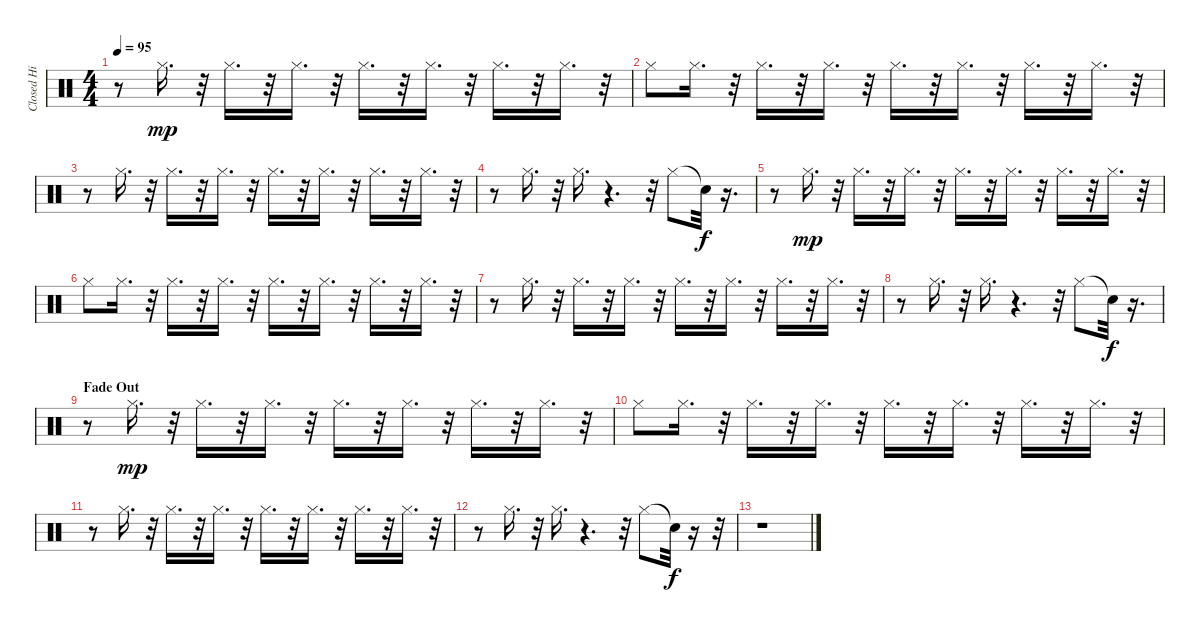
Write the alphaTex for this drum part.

\track ("Closed Hi Hat" "Closed Hi ") {instrument percussion}
\staff {score}
\articulation defaults
\ts (4 4)
\tempo 95
\clef neutral
\ks c
r.8{dy f} "Hi-Hat (closed)".16{d dy mp} r.32 "Hi-Hat (closed)".16{d} r.32 "Hi-Hat (closed)".16{d} r.32 "Hi-Hat (closed)".16{d} r.32 "Hi-Hat (closed)".16{d} r.32 "Hi-Hat (closed)".16{d} r.32 "Hi-Hat (closed)".16{d} r.32 |
"Hi-Hat (closed)".8 "Hi-Hat (closed)".16{d} r.32 "Hi-Hat (closed)".16{d} r.32 "Hi-Hat (closed)".16{d} r.32 "Hi-Hat (closed)".16{d} r.32 "Hi-Hat (closed)".16{d} r.32 "Hi-Hat (closed)".16{d} r.32 "Hi-Hat (closed)".16{d} r.32 |
r.8 "Hi-Hat (closed)".16{d} r.32 "Hi-Hat (closed)".16{d} r.32 "Hi-Hat (closed)".16{d} r.32 "Hi-Hat (closed)".16{d} r.32 "Hi-Hat (closed)".16{d} r.32 "Hi-Hat (closed)".16{d} r.32 "Hi-Hat (closed)".16{d} r.32 |
r.8 "Hi-Hat (closed)".16{d} r.32 "Hi-Hat (closed)".16{d} r.4{d} r.32 "Hi-Hat (closed)".8 "Snare (hit)"{t}.32{dy f} r.16{d} |
r.8 "Hi-Hat (closed)".16{d dy mp} r.32 "Hi-Hat (closed)".16{d} r.32 "Hi-Hat (closed)".16{d} r.32 "Hi-Hat (closed)".16{d} r.32 "Hi-Hat (closed)".16{d} r.32 "Hi-Hat (closed)".16{d} r.32 "Hi-Hat (closed)".16{d} r.32 |
"Hi-Hat (closed)".8 "Hi-Hat (closed)".16{d} r.32 "Hi-Hat (closed)".16{d} r.32 "Hi-Hat (closed)".16{d} r.32 "Hi-Hat (closed)".16{d} r.32 "Hi-Hat (closed)".16{d} r.32 "Hi-Hat (closed)".16{d} r.32 "Hi-Hat (closed)".16{d} r.32 |
r.8 "Hi-Hat (closed)".16{d} r.32 "Hi-Hat (closed)".16{d} r.32 "Hi-Hat (closed)".16{d} r.32 "Hi-Hat (closed)".16{d} r.32 "Hi-Hat (closed)".16{d} r.32 "Hi-Hat (closed)".16{d} r.32 "Hi-Hat (closed)".16{d} r.32 |
r.8 "Hi-Hat (closed)".16{d} r.32 "Hi-Hat (closed)".16{d} r.4{d} r.32 "Hi-Hat (closed)".8 "Snare (hit)"{t}.32{dy f} r.16{d} |
\section ("" "Fade Out")
r.8{volume 0} "Hi-Hat (closed)".16{d dy mp} r.32 "Hi-Hat (closed)".16{d} r.32 "Hi-Hat (closed)".16{d} r.32 "Hi-Hat (closed)".16{d} r.32 "Hi-Hat (closed)".16{d} r.32 "Hi-Hat (closed)".16{d} r.32 "Hi-Hat (closed)".16{d} r.32 |
"Hi-Hat (closed)".8 "Hi-Hat (closed)".16{d} r.32 "Hi-Hat (closed)".16{d} r.32 "Hi-Hat (closed)".16{d} r.32 "Hi-Hat (closed)".16{d} r.32 "Hi-Hat (closed)".16{d} r.32 "Hi-Hat (closed)".16{d} r.32 "Hi-Hat (closed)".16{d} r.32 |
r.8 "Hi-Hat (closed)".16{d} r.32 "Hi-Hat (closed)".16{d} r.32 "Hi-Hat (closed)".16{d} r.32 "Hi-Hat (closed)".16{d} r.32 "Hi-Hat (closed)".16{d} r.32 "Hi-Hat (closed)".16{d} r.32 "Hi-Hat (closed)".16{d} r.32 |
r.8 "Hi-Hat (closed)".16{d} r.32 "Hi-Hat (closed)".16{d} r.4{d} r.32 "Hi-Hat (closed)".8 "Snare (hit)"{t}.32{dy f} r.16 r.32 |
r.1
